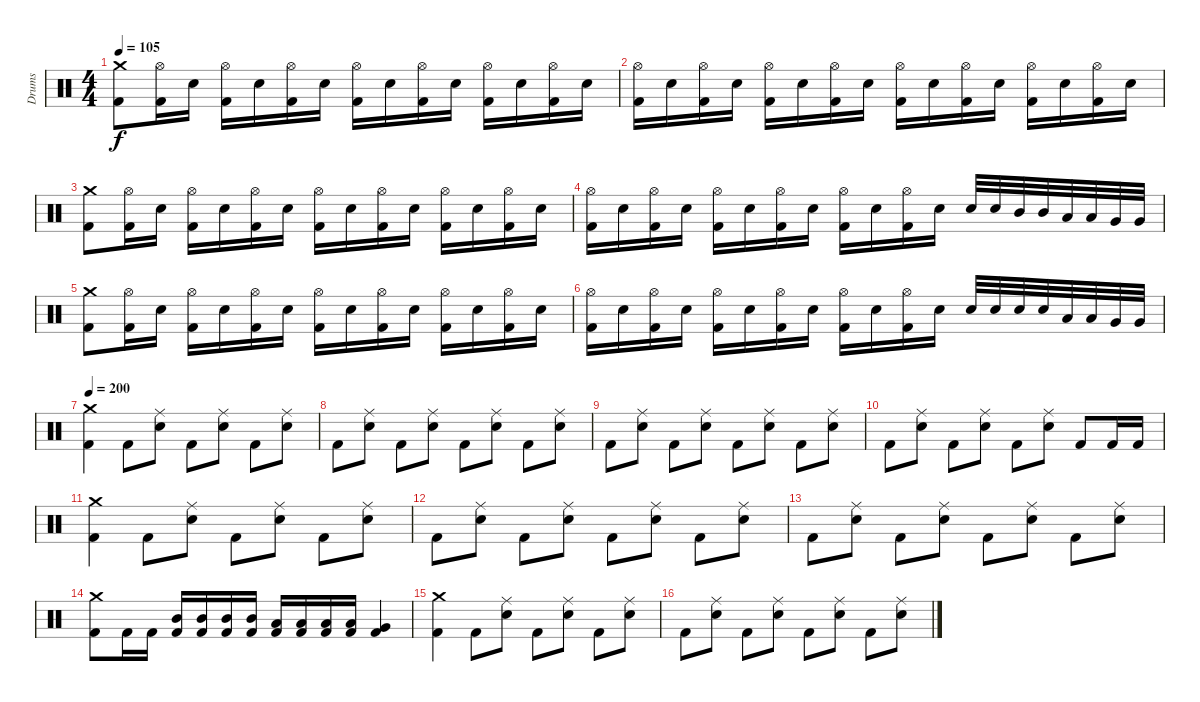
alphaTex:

\track ("Drums" "Drums") {instrument percussion}
\staff {score}
\articulation defaults
\ts (4 4)
\tempo 105
\clef neutral
\ks c
("Crash medium (hit)" "Kick (hit) 2").8{dy f} ("Hi-Hat (open)" "Kick (hit) 2").16 "Electric Snare (hit)".16 ("Hi-Hat (open)" "Kick (hit) 2").16 "Electric Snare (hit)".16 ("Hi-Hat (open)" "Kick (hit) 2").16 "Electric Snare (hit)".16 ("Hi-Hat (open)" "Kick (hit) 2").16 "Electric Snare (hit)".16 ("Hi-Hat (open)" "Kick (hit) 2").16 "Electric Snare (hit)".16 ("Hi-Hat (open)" "Kick (hit) 2").16 "Electric Snare (hit)".16 ("Hi-Hat (open)" "Kick (hit) 2").16 "Electric Snare (hit)".16 |
("Hi-Hat (open)" "Kick (hit) 2").16 "Electric Snare (hit)".16 ("Hi-Hat (open)" "Kick (hit) 2").16 "Electric Snare (hit)".16 ("Hi-Hat (open)" "Kick (hit) 2").16 "Electric Snare (hit)".16 ("Hi-Hat (open)" "Kick (hit) 2").16 "Electric Snare (hit)".16 ("Hi-Hat (open)" "Kick (hit) 2").16 "Electric Snare (hit)".16 ("Hi-Hat (open)" "Kick (hit) 2").16 "Electric Snare (hit)".16 ("Hi-Hat (open)" "Kick (hit) 2").16 "Electric Snare (hit)".16 ("Hi-Hat (open)" "Kick (hit) 2").16 "Electric Snare (hit)".16 |
("Crash medium (hit)" "Kick (hit) 2").8 ("Hi-Hat (open)" "Kick (hit) 2").16 "Electric Snare (hit)".16 ("Hi-Hat (open)" "Kick (hit) 2").16 "Electric Snare (hit)".16 ("Hi-Hat (open)" "Kick (hit) 2").16 "Electric Snare (hit)".16 ("Hi-Hat (open)" "Kick (hit) 2").16 "Electric Snare (hit)".16 ("Hi-Hat (open)" "Kick (hit) 2").16 "Electric Snare (hit)".16 ("Hi-Hat (open)" "Kick (hit) 2").16 "Electric Snare (hit)".16 ("Hi-Hat (open)" "Kick (hit) 2").16 "Electric Snare (hit)".16 |
("Hi-Hat (open)" "Kick (hit) 2").16 "Electric Snare (hit)".16 ("Hi-Hat (open)" "Kick (hit) 2").16 "Electric Snare (hit)".16 ("Hi-Hat (open)" "Kick (hit) 2").16 "Electric Snare (hit)".16 ("Hi-Hat (open)" "Kick (hit) 2").16 "Electric Snare (hit)".16 ("Hi-Hat (open)" "Kick (hit) 2").16 "Electric Snare (hit)".16 ("Hi-Hat (open)" "Kick (hit) 2").16 "Electric Snare (hit)".16 "Electric Snare (hit)".32 "Electric Snare (hit)".32 "Mid Tom (hit)".32 "Mid Tom (hit)".32 "Low Tom (hit)".32 "Low Tom (hit)".32 "Very Low Tom (hit)".32 "Very Low Tom (hit)".32 |
("Crash medium (hit)" "Kick (hit) 2").8 ("Hi-Hat (open)" "Kick (hit) 2").16 "Electric Snare (hit)".16 ("Hi-Hat (open)" "Kick (hit) 2").16 "Electric Snare (hit)".16 ("Hi-Hat (open)" "Kick (hit) 2").16 "Electric Snare (hit)".16 ("Hi-Hat (open)" "Kick (hit) 2").16 "Electric Snare (hit)".16 ("Hi-Hat (open)" "Kick (hit) 2").16 "Electric Snare (hit)".16 ("Hi-Hat (open)" "Kick (hit) 2").16 "Electric Snare (hit)".16 ("Hi-Hat (open)" "Kick (hit) 2").16 "Electric Snare (hit)".16 |
("Hi-Hat (open)" "Kick (hit) 2").16 "Electric Snare (hit)".16 ("Hi-Hat (open)" "Kick (hit) 2").16 "Electric Snare (hit)".16 ("Hi-Hat (open)" "Kick (hit) 2").16 "Electric Snare (hit)".16 ("Hi-Hat (open)" "Kick (hit) 2").16 "Electric Snare (hit)".16 ("Hi-Hat (open)" "Kick (hit) 2").16 "Electric Snare (hit)".16 ("Hi-Hat (open)" "Kick (hit) 2").16 "Electric Snare (hit)".16 "Electric Snare (hit)".32 "Electric Snare (hit)".32 "Electric Snare (hit)".32 "Electric Snare (hit)".32 "Low Tom (hit)".32 "Low Tom (hit)".32 "Very Low Tom (hit)".32 "Very Low Tom (hit)".32 |
\section ("" "")
\tempo 200
("Crash medium (hit)" "Kick (hit) 2").4 "Kick (hit) 2".8 ("Ride (middle)" "Electric Snare (hit)").8 "Kick (hit) 2".8 ("Ride (middle)" "Electric Snare (hit)").8 "Kick (hit) 2".8 ("Ride (middle)" "Electric Snare (hit)").8 |
"Kick (hit) 2".8 ("Ride (middle)" "Electric Snare (hit)").8 "Kick (hit) 2".8 ("Ride (middle)" "Electric Snare (hit)").8 "Kick (hit) 2".8 ("Ride (middle)" "Electric Snare (hit)").8 "Kick (hit) 2".8 ("Ride (middle)" "Electric Snare (hit)").8 |
"Kick (hit) 2".8 ("Ride (middle)" "Electric Snare (hit)").8 "Kick (hit) 2".8 ("Ride (middle)" "Electric Snare (hit)").8 "Kick (hit) 2".8 ("Ride (middle)" "Electric Snare (hit)").8 "Kick (hit) 2".8 ("Ride (middle)" "Electric Snare (hit)").8 |
"Kick (hit) 2".8 ("Ride (middle)" "Electric Snare (hit)").8 "Kick (hit) 2".8 ("Ride (middle)" "Electric Snare (hit)").8 "Kick (hit) 2".8 ("Ride (middle)" "Electric Snare (hit)").8 "Kick (hit) 2".8 "Kick (hit) 2".16 "Kick (hit) 2".16 |
("Crash medium (hit)" "Kick (hit) 2").4 "Kick (hit) 2".8 ("Ride (middle)" "Electric Snare (hit)").8 "Kick (hit) 2".8 ("Ride (middle)" "Electric Snare (hit)").8 "Kick (hit) 2".8 ("Ride (middle)" "Electric Snare (hit)").8 |
"Kick (hit) 2".8 ("Ride (middle)" "Electric Snare (hit)").8 "Kick (hit) 2".8 ("Ride (middle)" "Electric Snare (hit)").8 "Kick (hit) 2".8 ("Ride (middle)" "Electric Snare (hit)").8 "Kick (hit) 2".8 ("Ride (middle)" "Electric Snare (hit)").8 |
"Kick (hit) 2".8 ("Ride (middle)" "Electric Snare (hit)").8 "Kick (hit) 2".8 ("Ride (middle)" "Electric Snare (hit)").8 "Kick (hit) 2".8 ("Ride (middle)" "Electric Snare (hit)").8 "Kick (hit) 2".8 ("Ride (middle)" "Electric Snare (hit)").8 |
("Crash medium (hit)" "Kick (hit) 2").8 "Kick (hit) 2".16 "Kick (hit) 2".16 ("Mid Tom (hit)" "Kick (hit) 2").16 ("Mid Tom (hit)" "Kick (hit) 2").16 ("Mid Tom (hit)" "Kick (hit) 2").16 ("Mid Tom (hit)" "Kick (hit) 2").16 ("Low Tom (hit)" "Kick (hit) 2").16 ("Low Tom (hit)" "Kick (hit) 2").16 ("Low Tom (hit)" "Kick (hit) 2").16 ("Low Tom (hit)" "Kick (hit) 2").16 ("Very Low Tom (hit)" "Kick (hit) 2").4 |
\section ("" "")
("Crash medium (hit)" "Kick (hit) 2").4 "Kick (hit) 2".8 ("Ride (middle)" "Electric Snare (hit)").8 "Kick (hit) 2".8 ("Ride (middle)" "Electric Snare (hit)").8 "Kick (hit) 2".8 ("Ride (middle)" "Electric Snare (hit)").8 |
"Kick (hit) 2".8 ("Ride (middle)" "Electric Snare (hit)").8 "Kick (hit) 2".8 ("Ride (middle)" "Electric Snare (hit)").8 "Kick (hit) 2".8 ("Ride (middle)" "Electric Snare (hit)").8 "Kick (hit) 2".8 ("Ride (middle)" "Electric Snare (hit)").8
